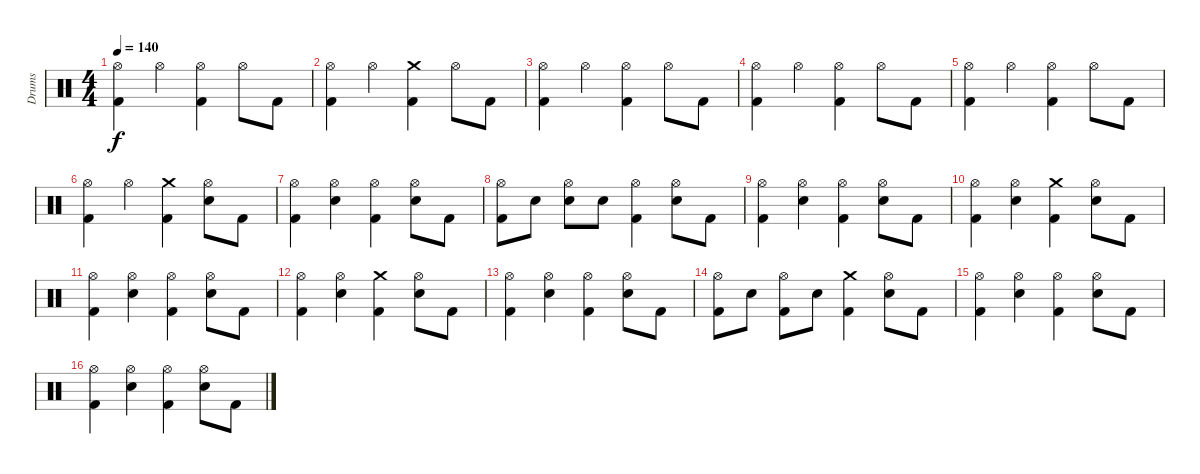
\track ("Drums" "Drums") {instrument percussion}
\staff {score}
\articulation defaults
\ts (4 4)
\tempo 140
\clef neutral
\ks c
("Hi-Hat (open)" "Kick (hit) 2").4{dy f} "Hi-Hat (open)".4 ("Hi-Hat (open)" "Kick (hit) 2").4 "Hi-Hat (open)".8 "Kick (hit) 2".8 |
("Hi-Hat (open)" "Kick (hit) 2").4 "Hi-Hat (open)".4 ("Crash medium (hit)" "Kick (hit) 2").4 "Hi-Hat (open)".8 "Kick (hit) 2".8 |
("Hi-Hat (open)" "Kick (hit) 2").4 "Hi-Hat (open)".4 ("Hi-Hat (open)" "Kick (hit) 2").4 "Hi-Hat (open)".8 "Kick (hit) 2".8 |
("Hi-Hat (open)" "Kick (hit) 2").4 "Hi-Hat (open)".4 ("Hi-Hat (open)" "Kick (hit) 2").4 "Hi-Hat (open)".8 "Kick (hit) 2".8 |
("Hi-Hat (open)" "Kick (hit) 2").4 "Hi-Hat (open)".4 ("Hi-Hat (open)" "Kick (hit) 2").4 "Hi-Hat (open)".8 "Kick (hit) 2".8 |
("Hi-Hat (open)" "Kick (hit) 2").4 "Hi-Hat (open)".4 ("Crash medium (hit)" "Kick (hit) 2").4 ("Hi-Hat (open)" "Electric Snare (hit)").8 "Kick (hit) 2".8 |
("Hi-Hat (open)" "Kick (hit) 2").4 ("Hi-Hat (open)" "Electric Snare (hit)").4 ("Hi-Hat (open)" "Kick (hit) 2").4 ("Hi-Hat (open)" "Electric Snare (hit)").8 "Kick (hit) 2".8 |
("Hi-Hat (open)" "Kick (hit) 2").8 "Electric Snare (hit)".8 ("Hi-Hat (open)" "Electric Snare (hit)").8 "Electric Snare (hit)".8 ("Hi-Hat (open)" "Kick (hit) 2").4 ("Hi-Hat (open)" "Electric Snare (hit)").8 "Kick (hit) 2".8 |
("Hi-Hat (open)" "Kick (hit) 2").4 ("Hi-Hat (open)" "Electric Snare (hit)").4 ("Hi-Hat (open)" "Kick (hit) 2").4 ("Hi-Hat (open)" "Electric Snare (hit)").8 "Kick (hit) 2".8 |
("Hi-Hat (open)" "Kick (hit) 2").4 ("Hi-Hat (open)" "Electric Snare (hit)").4 ("Crash medium (hit)" "Kick (hit) 2").4 ("Hi-Hat (open)" "Electric Snare (hit)").8 "Kick (hit) 2".8 |
("Hi-Hat (open)" "Kick (hit) 2").4 ("Hi-Hat (open)" "Electric Snare (hit)").4 ("Hi-Hat (open)" "Kick (hit) 2").4 ("Hi-Hat (open)" "Electric Snare (hit)").8 "Kick (hit) 2".8 |
("Hi-Hat (open)" "Kick (hit) 2").4 ("Hi-Hat (open)" "Electric Snare (hit)").4 ("Crash medium (hit)" "Kick (hit) 2").4 ("Hi-Hat (open)" "Electric Snare (hit)").8 "Kick (hit) 2".8 |
("Hi-Hat (open)" "Kick (hit) 2").4 ("Hi-Hat (open)" "Electric Snare (hit)").4 ("Hi-Hat (open)" "Kick (hit) 2").4 ("Hi-Hat (open)" "Electric Snare (hit)").8 "Kick (hit) 2".8 |
("Hi-Hat (open)" "Kick (hit) 2").8 "Electric Snare (hit)".8 ("Hi-Hat (open)" "Kick (hit) 2").8 "Electric Snare (hit)".8 ("Crash medium (hit)" "Kick (hit) 2").4 ("Hi-Hat (open)" "Electric Snare (hit)").8 "Kick (hit) 2".8 |
("Hi-Hat (open)" "Kick (hit) 2").4 ("Hi-Hat (open)" "Electric Snare (hit)").4 ("Hi-Hat (open)" "Kick (hit) 2").4 ("Hi-Hat (open)" "Electric Snare (hit)").8 "Kick (hit) 2".8 |
("Hi-Hat (open)" "Kick (hit) 2").4 ("Hi-Hat (open)" "Electric Snare (hit)").4 ("Hi-Hat (open)" "Kick (hit) 2").4 ("Hi-Hat (open)" "Electric Snare (hit)").8 "Kick (hit) 2".8
